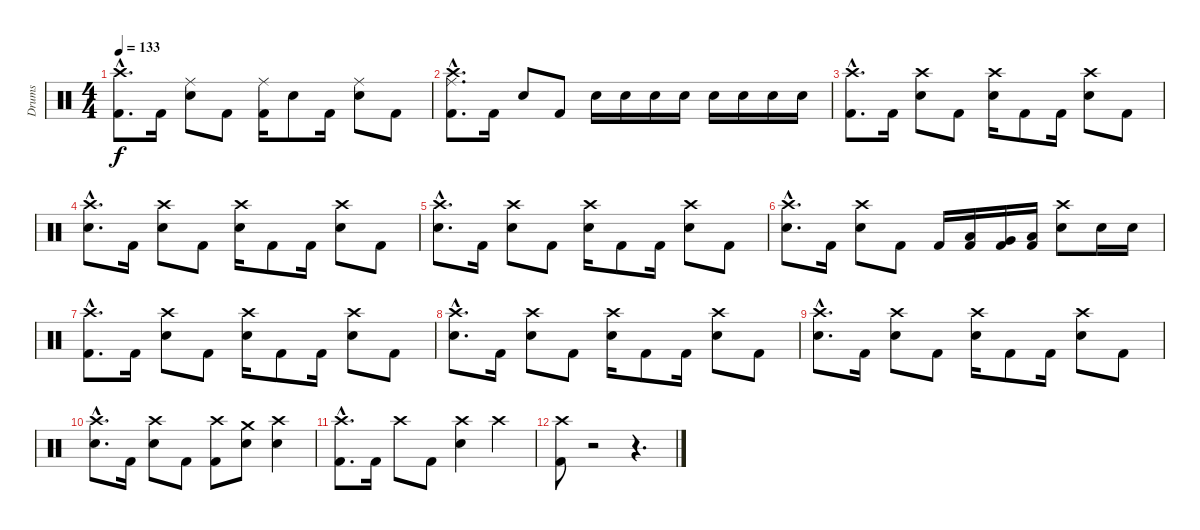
\track ("Drums" "Drums") {instrument percussion}
\staff {score}
\articulation defaults
\ts (4 4)
\tempo 133
\clef neutral
\ks c
("Crash high (hit)"{hac} "Kick (hit) 2"{hac}).8{d dy f} "Kick (hit) 2".16 ("Ride (middle)" "Snare (hit) 2").8 "Kick (hit) 2".8 ("Ride (middle)" "Kick (hit) 2").16 "Snare (hit) 2".8 "Kick (hit) 2".16 ("Ride (middle)" "Snare (hit) 2").8 "Kick (hit) 2".8 |
("Crash high (hit)"{hac} "Ride (middle)"{hac} "Kick (hit) 2"{hac}).8{d} "Kick (hit) 2".16 "Snare (hit) 2".8 "Kick (hit) 2".8 "Snare (hit) 2".16 "Snare (hit) 2".16 "Snare (hit) 2".16 "Snare (hit) 2".16 "Snare (hit) 2".16 "Snare (hit) 2".16 "Snare (hit) 2".16 "Snare (hit) 2".16 |
("Crash high (hit)"{hac} "Kick (hit) 2"{hac}).8{d} "Kick (hit) 2".16 ("Crash high (hit)" "Snare (hit) 2").8 "Kick (hit) 2".8 ("Crash high (hit)" "Snare (hit) 2").16 "Kick (hit) 2".8 "Kick (hit) 2".16 ("Crash high (hit)" "Snare (hit) 2").8 "Kick (hit) 2".8 |
("Crash high (hit)"{hac} "Snare (hit) 2"{hac}).8{d} "Kick (hit) 2".16 ("Crash high (hit)" "Snare (hit) 2").8 "Kick (hit) 2".8 ("Crash high (hit)" "Snare (hit) 2").16 "Kick (hit) 2".8 "Kick (hit) 2".16 ("Crash high (hit)" "Snare (hit) 2").8 "Kick (hit) 2".8 |
("Crash high (hit)"{hac} "Snare (hit) 2"{hac}).8{d} "Kick (hit) 2".16 ("Crash high (hit)" "Snare (hit) 2").8 "Kick (hit) 2".8 ("Crash high (hit)" "Snare (hit) 2").16 "Kick (hit) 2".8 "Kick (hit) 2".16 ("Crash high (hit)" "Snare (hit) 2").8 "Kick (hit) 2".8 |
("Crash high (hit)"{hac} "Snare (hit) 2"{hac}).8{d} "Kick (hit) 2".16 ("Crash high (hit)" "Snare (hit) 2").8 "Kick (hit) 2".8 "Kick (hit) 2".16 ("Low Tom (hit)" "Kick (hit) 2").16 ("Very Low Tom (hit)" "Kick (hit) 2").16 ("Low Floor Tom (hit)" "Kick (hit) 2").16 ("Crash high (hit)" "Snare (hit) 2").8 "Snare (hit) 2".16 "Snare (hit) 2".16 |
("Crash high (hit)"{hac} "Kick (hit) 2"{hac}).8{d} "Kick (hit) 2".16 ("Crash high (hit)" "Snare (hit) 2").8 "Kick (hit) 2".8 ("Crash high (hit)" "Snare (hit) 2").16 "Kick (hit) 2".8 "Kick (hit) 2".16 ("Crash high (hit)" "Snare (hit) 2").8 "Kick (hit) 2".8 |
("Crash high (hit)"{hac} "Snare (hit) 2"{hac}).8{d} "Kick (hit) 2".16 ("Crash high (hit)" "Snare (hit) 2").8 "Kick (hit) 2".8 ("Crash high (hit)" "Snare (hit) 2").16 "Kick (hit) 2".8 "Kick (hit) 2".16 ("Crash high (hit)" "Snare (hit) 2").8 "Kick (hit) 2".8 |
("Crash high (hit)"{hac} "Snare (hit) 2"{hac}).8{d} "Kick (hit) 2".16 ("Crash high (hit)" "Snare (hit) 2").8 "Kick (hit) 2".8 ("Crash high (hit)" "Snare (hit) 2").16 "Kick (hit) 2".8 "Kick (hit) 2".16 ("Crash high (hit)" "Snare (hit) 2").8 "Kick (hit) 2".8 |
("Crash high (hit)"{hac} "Snare (hit) 2"{hac}).8{d} "Kick (hit) 2".16 ("Crash high (hit)" "Snare (hit) 2").8 "Kick (hit) 2".8 ("Crash high (hit)" "Kick (hit) 2").8 ("Crash medium (hit)" "Snare (hit) 2").8 ("Crash high (hit)" "Snare (hit) 2").4 |
("Crash high (hit)"{hac} "Kick (hit) 2"{hac}).8{d} "Kick (hit) 2".16 "Crash high (hit)".8 "Kick (hit) 2".8 ("Crash high (hit)" "Snare (hit) 2").4 "Crash high (hit)".4 |
("Crash high (hit)" "Kick (hit) 2").8 r.2 r.4{d}
